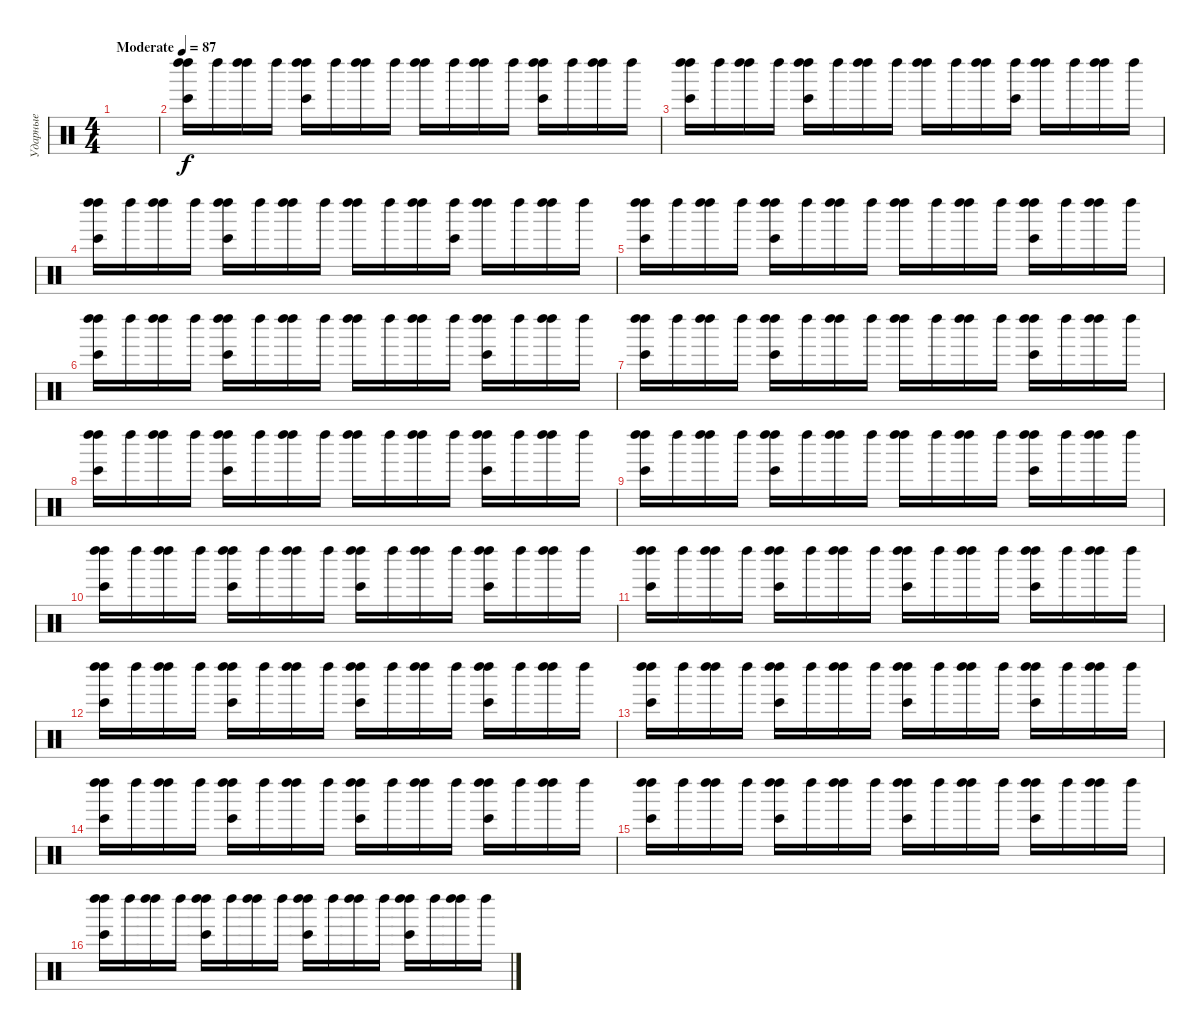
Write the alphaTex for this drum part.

\track ("Ударные" "Ударные") {instrument percussion}
\staff {score}
\articulation defaults
\ts (4 4)
\tempo (87 "Moderate")
\clef neutral
\ks c
|
("Left Maraca (hit)" "Left Maraca (hit)" "Bongo High (hit)").16 "Left Maraca (hit)".16 ("Left Maraca (hit)" "Left Maraca (hit)").16 "Left Maraca (hit)".16 ("Left Maraca (hit)" "Left Maraca (hit)" "Bongo High (hit)").16 "Left Maraca (hit)".16 ("Left Maraca (hit)" "Left Maraca (hit)").16 "Left Maraca (hit)".16 ("Left Maraca (hit)" "Left Maraca (hit)").16 "Left Maraca (hit)".16 ("Left Maraca (hit)" "Left Maraca (hit)").16 "Left Maraca (hit)".16 ("Left Maraca (hit)" "Left Maraca (hit)" "Bongo High (hit)").16 "Left Maraca (hit)".16 ("Left Maraca (hit)" "Left Maraca (hit)").16 "Left Maraca (hit)".16 |
("Left Maraca (hit)" "Left Maraca (hit)" "Bongo High (hit)").16 "Left Maraca (hit)".16 ("Left Maraca (hit)" "Left Maraca (hit)").16 "Left Maraca (hit)".16 ("Left Maraca (hit)" "Left Maraca (hit)" "Bongo High (hit)").16 "Left Maraca (hit)".16 ("Left Maraca (hit)" "Left Maraca (hit)").16 "Left Maraca (hit)".16 ("Left Maraca (hit)" "Left Maraca (hit)").16 "Left Maraca (hit)".16 ("Left Maraca (hit)" "Left Maraca (hit)").16 ("Left Maraca (hit)" "Bongo High (hit)").16 ("Left Maraca (hit)" "Left Maraca (hit)").16 "Left Maraca (hit)".16 ("Left Maraca (hit)" "Left Maraca (hit)").16 "Left Maraca (hit)".16 |
("Left Maraca (hit)" "Left Maraca (hit)" "Bongo High (hit)").16 "Left Maraca (hit)".16 ("Left Maraca (hit)" "Left Maraca (hit)").16 "Left Maraca (hit)".16 ("Left Maraca (hit)" "Left Maraca (hit)" "Bongo High (hit)").16 "Left Maraca (hit)".16 ("Left Maraca (hit)" "Left Maraca (hit)").16 "Left Maraca (hit)".16 ("Left Maraca (hit)" "Left Maraca (hit)").16 "Left Maraca (hit)".16 ("Left Maraca (hit)" "Left Maraca (hit)").16 ("Left Maraca (hit)" "Bongo High (hit)").16 ("Left Maraca (hit)" "Left Maraca (hit)").16 "Left Maraca (hit)".16 ("Left Maraca (hit)" "Left Maraca (hit)").16 "Left Maraca (hit)".16 |
("Left Maraca (hit)" "Left Maraca (hit)" "Bongo High (hit)").16 "Left Maraca (hit)".16 ("Left Maraca (hit)" "Left Maraca (hit)").16 "Left Maraca (hit)".16 ("Left Maraca (hit)" "Left Maraca (hit)" "Bongo High (hit)").16 "Left Maraca (hit)".16 ("Left Maraca (hit)" "Left Maraca (hit)").16 "Left Maraca (hit)".16 ("Left Maraca (hit)" "Left Maraca (hit)").16 "Left Maraca (hit)".16 ("Left Maraca (hit)" "Left Maraca (hit)").16 "Left Maraca (hit)".16 ("Left Maraca (hit)" "Left Maraca (hit)" "Bongo High (hit)").16 "Left Maraca (hit)".16 ("Left Maraca (hit)" "Left Maraca (hit)").16 "Left Maraca (hit)".16 |
("Left Maraca (hit)" "Left Maraca (hit)" "Bongo High (hit)").16 "Left Maraca (hit)".16 ("Left Maraca (hit)" "Left Maraca (hit)").16 "Left Maraca (hit)".16 ("Left Maraca (hit)" "Left Maraca (hit)" "Bongo High (hit)").16 "Left Maraca (hit)".16 ("Left Maraca (hit)" "Left Maraca (hit)").16 "Left Maraca (hit)".16 ("Left Maraca (hit)" "Left Maraca (hit)").16 "Left Maraca (hit)".16 ("Left Maraca (hit)" "Left Maraca (hit)").16 "Left Maraca (hit)".16 ("Left Maraca (hit)" "Left Maraca (hit)" "Bongo High (hit)").16 "Left Maraca (hit)".16 ("Left Maraca (hit)" "Left Maraca (hit)").16 "Left Maraca (hit)".16 |
("Left Maraca (hit)" "Left Maraca (hit)" "Bongo High (hit)").16 "Left Maraca (hit)".16 ("Left Maraca (hit)" "Left Maraca (hit)").16 "Left Maraca (hit)".16 ("Left Maraca (hit)" "Left Maraca (hit)" "Bongo High (hit)").16 "Left Maraca (hit)".16 ("Left Maraca (hit)" "Left Maraca (hit)").16 "Left Maraca (hit)".16 ("Left Maraca (hit)" "Left Maraca (hit)").16 "Left Maraca (hit)".16 ("Left Maraca (hit)" "Left Maraca (hit)").16 "Left Maraca (hit)".16 ("Left Maraca (hit)" "Left Maraca (hit)" "Bongo High (hit)").16 "Left Maraca (hit)".16 ("Left Maraca (hit)" "Left Maraca (hit)").16 "Left Maraca (hit)".16 |
("Left Maraca (hit)" "Left Maraca (hit)" "Bongo High (hit)").16 "Left Maraca (hit)".16 ("Left Maraca (hit)" "Left Maraca (hit)").16 "Left Maraca (hit)".16 ("Left Maraca (hit)" "Left Maraca (hit)" "Bongo High (hit)").16 "Left Maraca (hit)".16 ("Left Maraca (hit)" "Left Maraca (hit)").16 "Left Maraca (hit)".16 ("Left Maraca (hit)" "Left Maraca (hit)").16 "Left Maraca (hit)".16 ("Left Maraca (hit)" "Left Maraca (hit)").16 "Left Maraca (hit)".16 ("Left Maraca (hit)" "Left Maraca (hit)" "Bongo High (hit)").16 "Left Maraca (hit)".16 ("Left Maraca (hit)" "Left Maraca (hit)").16 "Left Maraca (hit)".16 |
("Left Maraca (hit)" "Left Maraca (hit)" "Bongo High (hit)").16 "Left Maraca (hit)".16 ("Left Maraca (hit)" "Left Maraca (hit)").16 "Left Maraca (hit)".16 ("Left Maraca (hit)" "Left Maraca (hit)" "Bongo High (hit)").16 "Left Maraca (hit)".16 ("Left Maraca (hit)" "Left Maraca (hit)").16 "Left Maraca (hit)".16 ("Left Maraca (hit)" "Left Maraca (hit)").16 "Left Maraca (hit)".16 ("Left Maraca (hit)" "Left Maraca (hit)").16 "Left Maraca (hit)".16 ("Left Maraca (hit)" "Left Maraca (hit)" "Bongo High (hit)").16 "Left Maraca (hit)".16 ("Left Maraca (hit)" "Left Maraca (hit)").16 "Left Maraca (hit)".16 |
("Left Maraca (hit)" "Left Maraca (hit)" "Bongo High (hit)").16 "Left Maraca (hit)".16 ("Left Maraca (hit)" "Left Maraca (hit)").16 "Left Maraca (hit)".16 ("Left Maraca (hit)" "Left Maraca (hit)" "Bongo High (hit)").16 "Left Maraca (hit)".16 ("Left Maraca (hit)" "Left Maraca (hit)").16 "Left Maraca (hit)".16 ("Left Maraca (hit)" "Left Maraca (hit)" "Bongo High (hit)").16 "Left Maraca (hit)".16 ("Left Maraca (hit)" "Left Maraca (hit)").16 "Left Maraca (hit)".16 ("Left Maraca (hit)" "Left Maraca (hit)" "Bongo High (hit)").16 "Left Maraca (hit)".16 ("Left Maraca (hit)" "Left Maraca (hit)").16 "Left Maraca (hit)".16 |
("Left Maraca (hit)" "Left Maraca (hit)" "Bongo High (hit)").16 "Left Maraca (hit)".16 ("Left Maraca (hit)" "Left Maraca (hit)").16 "Left Maraca (hit)".16 ("Left Maraca (hit)" "Left Maraca (hit)" "Bongo High (hit)").16 "Left Maraca (hit)".16 ("Left Maraca (hit)" "Left Maraca (hit)").16 "Left Maraca (hit)".16 ("Left Maraca (hit)" "Left Maraca (hit)" "Bongo High (hit)").16 "Left Maraca (hit)".16 ("Left Maraca (hit)" "Left Maraca (hit)").16 "Left Maraca (hit)".16 ("Left Maraca (hit)" "Left Maraca (hit)" "Bongo High (hit)").16 "Left Maraca (hit)".16 ("Left Maraca (hit)" "Left Maraca (hit)").16 "Left Maraca (hit)".16 |
("Left Maraca (hit)" "Left Maraca (hit)" "Bongo High (hit)").16 "Left Maraca (hit)".16 ("Left Maraca (hit)" "Left Maraca (hit)").16 "Left Maraca (hit)".16 ("Left Maraca (hit)" "Left Maraca (hit)" "Bongo High (hit)").16 "Left Maraca (hit)".16 ("Left Maraca (hit)" "Left Maraca (hit)").16 "Left Maraca (hit)".16 ("Left Maraca (hit)" "Left Maraca (hit)" "Bongo High (hit)").16 "Left Maraca (hit)".16 ("Left Maraca (hit)" "Left Maraca (hit)").16 "Left Maraca (hit)".16 ("Left Maraca (hit)" "Left Maraca (hit)" "Bongo High (hit)").16 "Left Maraca (hit)".16 ("Left Maraca (hit)" "Left Maraca (hit)").16 "Left Maraca (hit)".16 |
("Left Maraca (hit)" "Left Maraca (hit)" "Bongo High (hit)").16 "Left Maraca (hit)".16 ("Left Maraca (hit)" "Left Maraca (hit)").16 "Left Maraca (hit)".16 ("Left Maraca (hit)" "Left Maraca (hit)" "Bongo High (hit)").16 "Left Maraca (hit)".16 ("Left Maraca (hit)" "Left Maraca (hit)").16 "Left Maraca (hit)".16 ("Left Maraca (hit)" "Left Maraca (hit)" "Bongo High (hit)").16 "Left Maraca (hit)".16 ("Left Maraca (hit)" "Left Maraca (hit)").16 "Left Maraca (hit)".16 ("Left Maraca (hit)" "Left Maraca (hit)" "Bongo High (hit)").16 "Left Maraca (hit)".16 ("Left Maraca (hit)" "Left Maraca (hit)").16 "Left Maraca (hit)".16 |
("Left Maraca (hit)" "Left Maraca (hit)" "Bongo High (hit)").16 "Left Maraca (hit)".16 ("Left Maraca (hit)" "Left Maraca (hit)").16 "Left Maraca (hit)".16 ("Left Maraca (hit)" "Left Maraca (hit)" "Bongo High (hit)").16 "Left Maraca (hit)".16 ("Left Maraca (hit)" "Left Maraca (hit)").16 "Left Maraca (hit)".16 ("Left Maraca (hit)" "Left Maraca (hit)" "Bongo High (hit)").16 "Left Maraca (hit)".16 ("Left Maraca (hit)" "Left Maraca (hit)").16 "Left Maraca (hit)".16 ("Left Maraca (hit)" "Left Maraca (hit)" "Bongo High (hit)").16 "Left Maraca (hit)".16 ("Left Maraca (hit)" "Left Maraca (hit)").16 "Left Maraca (hit)".16 |
("Left Maraca (hit)" "Left Maraca (hit)" "Bongo High (hit)").16 "Left Maraca (hit)".16 ("Left Maraca (hit)" "Left Maraca (hit)").16 "Left Maraca (hit)".16 ("Left Maraca (hit)" "Left Maraca (hit)" "Bongo High (hit)").16 "Left Maraca (hit)".16 ("Left Maraca (hit)" "Left Maraca (hit)").16 "Left Maraca (hit)".16 ("Left Maraca (hit)" "Left Maraca (hit)" "Bongo High (hit)").16 "Left Maraca (hit)".16 ("Left Maraca (hit)" "Left Maraca (hit)").16 "Left Maraca (hit)".16 ("Left Maraca (hit)" "Left Maraca (hit)" "Bongo High (hit)").16 "Left Maraca (hit)".16 ("Left Maraca (hit)" "Left Maraca (hit)").16 "Left Maraca (hit)".16 |
("Left Maraca (hit)" "Left Maraca (hit)" "Bongo High (hit)").16 "Left Maraca (hit)".16 ("Left Maraca (hit)" "Left Maraca (hit)").16 "Left Maraca (hit)".16 ("Left Maraca (hit)" "Left Maraca (hit)" "Bongo High (hit)").16 "Left Maraca (hit)".16 ("Left Maraca (hit)" "Left Maraca (hit)").16 "Left Maraca (hit)".16 ("Left Maraca (hit)" "Left Maraca (hit)" "Bongo High (hit)").16 "Left Maraca (hit)".16 ("Left Maraca (hit)" "Left Maraca (hit)").16 "Left Maraca (hit)".16 ("Left Maraca (hit)" "Left Maraca (hit)" "Bongo High (hit)").16 "Left Maraca (hit)".16 ("Left Maraca (hit)" "Left Maraca (hit)").16 "Left Maraca (hit)".16
